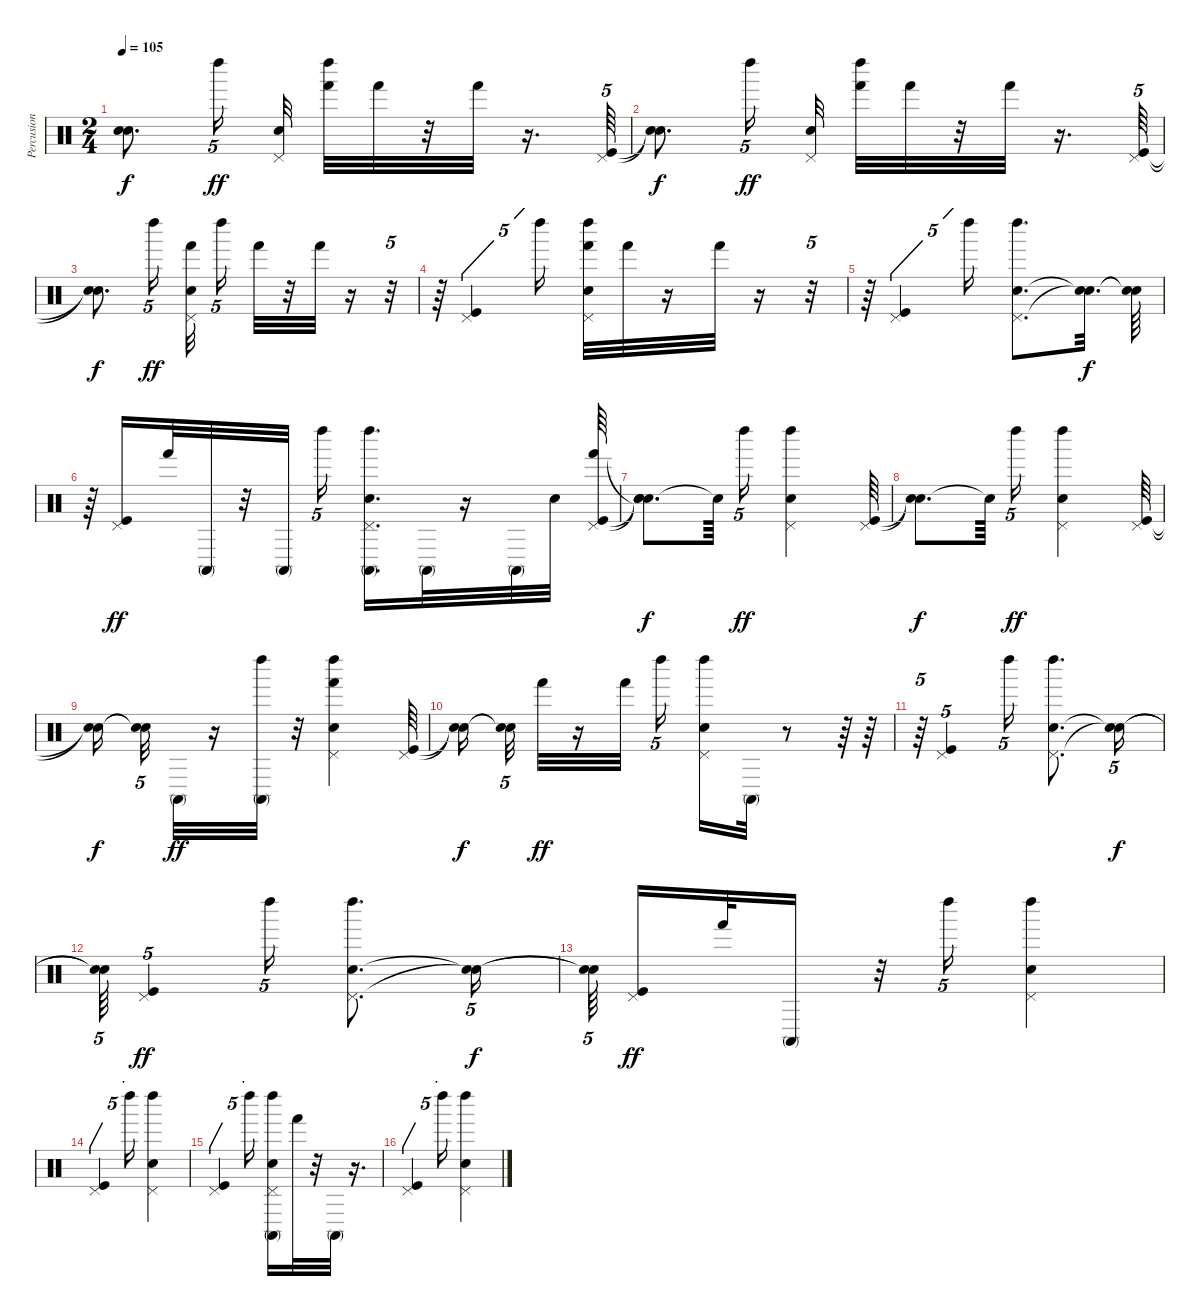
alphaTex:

\track ("Percusion" "Percusion") {instrument percussion}
\staff {score}
\articulation defaults
\ts (2 4)
\tempo 105
\clef neutral
\ks c
("Snare (hit)"{t} "Snare (hit)"{t}).8{d dy f} "Left Maraca (hit)".16{tu (5 4) dy ff} ("Electric Snare (hit)" "Pedal Hi-Hat (hit)").32 ("Left Maraca (hit)" "Hand (hit)").32 "Hand (hit)".32 r.32 "Hand (hit)".32 r.16{d} ("Kick (hit)" "Pedal Hi-Hat (hit)").64{tu (5 4)} |
("Snare (hit)"{t} "Snare (hit)"{t}).8{d dy f} "Left Maraca (hit)".16{tu (5 4) dy ff} ("Pedal Hi-Hat (hit)" "Electric Snare (hit)").32 ("Left Maraca (hit)" "Hand (hit)").32 "Hand (hit)".32 r.32 "Hand (hit)".32 r.16{d} ("Pedal Hi-Hat (hit)" "Kick (hit)").64{tu (5 4)} |
("Snare (hit)"{t} "Snare (hit)"{t}).8{d dy f} "Left Maraca (hit)".16{tu (5 4) dy ff} ("Electric Snare (hit)" "Hand (hit)" "Pedal Hi-Hat (hit)").32 "Left Maraca (hit)".16{tu (5 4)} "Hand (hit)".32 r.32 "Hand (hit)".32 r.16 r.32{tu (5 4)} |
r.64 ("Pedal Hi-Hat (hit)" "Kick (hit)").4{tu (5 4)} "Left Maraca (hit)".16{tu (5 4)} ("Pedal Hi-Hat (hit)" "Electric Snare (hit)" "Hand (hit)" "Left Maraca (hit)").32 "Hand (hit)".32 r.16 "Hand (hit)".32 r.16 r.32{tu (5 4)} |
r.64 ("Kick (hit)" "Pedal Hi-Hat (hit)").4{tu (5 4)} "Left Maraca (hit)".16{tu (5 4)} ("Electric Snare (hit)" "Pedal Hi-Hat (hit)" "Left Maraca (hit)").8{d} ("Snare (hit)"{t} "Snare (hit)"{t}).32{d dy f} ("Snare (hit)"{t} "Snare (hit)"{t}).64 |
r.64 ("Pedal Hi-Hat (hit)" "Kick (hit)").16{dy ff} "Hand (hit)".32 "Conga high (mute)".32 r.32 "Conga high (mute)".32 "Left Maraca (hit)".16{tu (5 4)} ("Pedal Hi-Hat (hit)" "Electric Snare (hit)" "Conga high (mute)" "Left Maraca (hit)").16{d} "Conga high (mute)".32 r.16 "Conga high (mute)".32 "Electric Snare (hit)".32 ("Hand (hit)" "Kick (hit)" "Pedal Hi-Hat (hit)").64 |
("Snare (hit)"{t} "Snare (hit)"{t} "Snare (hit)"{t}).8{d dy f} "Snare (hit)"{t}.64{beam splitsecondary} "Left Maraca (hit)".16{tu (5 4) dy ff} ("Electric Snare (hit)" "Pedal Hi-Hat (hit)" "Left Maraca (hit)").4 ("Pedal Hi-Hat (hit)" "Kick (hit)").64 |
("Snare (hit)"{t} "Snare (hit)"{t}).8{d dy f} "Snare (hit)"{t}.64{beam splitsecondary} "Left Maraca (hit)".16{tu (5 4) dy ff} ("Electric Snare (hit)" "Pedal Hi-Hat (hit)" "Left Maraca (hit)").4 ("Kick (hit)" "Pedal Hi-Hat (hit)").64 |
("Snare (hit)"{t} "Snare (hit)"{t}).16{dy f beam splitsecondary} ("Snare (hit)"{t} "Snare (hit)"{t}).32{tu (5 4)} "Conga high (mute)".32{dy ff} r.16 ("Left Maraca (hit)" "Conga high (mute)").32 r.32 ("Hand (hit)" "Pedal Hi-Hat (hit)" "Electric Snare (hit)" "Left Maraca (hit)").4 ("Pedal Hi-Hat (hit)" "Kick (hit)").64 |
("Snare (hit)"{t} "Snare (hit)"{t}).16{dy f beam splitsecondary} ("Snare (hit)"{t} "Snare (hit)"{t}).32{tu (5 4)} "Hand (hit)".32{dy ff} r.16 "Hand (hit)".32 "Left Maraca (hit)".16{tu (5 4)} ("Electric Snare (hit)" "Pedal Hi-Hat (hit)" "Left Maraca (hit)").16 "Conga high (mute)".32 r.8 r.64 r.64 |
r.64{tu (5 4)} ("Kick (hit)" "Pedal Hi-Hat (hit)").4{tu (5 4)} "Left Maraca (hit)".16{tu (5 4)} ("Pedal Hi-Hat (hit)" "Electric Snare (hit)" "Left Maraca (hit)").8{d} ("Snare (hit)"{t} "Snare (hit)"{t}).16{tu (5 4) dy f} |
("Snare (hit)"{t} "Snare (hit)"{t}).64{tu (5 4)} ("Pedal Hi-Hat (hit)" "Kick (hit)").4{tu (5 4) dy ff} "Left Maraca (hit)".16{tu (5 4)} ("Electric Snare (hit)" "Pedal Hi-Hat (hit)" "Left Maraca (hit)").8{d} ("Snare (hit)"{t} "Snare (hit)"{t}).16{tu (5 4) dy f} |
("Snare (hit)"{t} "Snare (hit)"{t}).64{tu (5 4) beam splitsecondary} ("Kick (hit)" "Pedal Hi-Hat (hit)").16{dy ff} "Hand (hit)".32 "Conga high (mute)".16 r.32 "Left Maraca (hit)".16{tu (5 4)} ("Pedal Hi-Hat (hit)" "Electric Snare (hit)" "Left Maraca (hit)").4 |
("Kick (hit)" "Pedal Hi-Hat (hit)").4{tu (5 4)} "Left Maraca (hit)".16{tu (5 4)} ("Electric Snare (hit)" "Pedal Hi-Hat (hit)" "Left Maraca (hit)").4 |
("Pedal Hi-Hat (hit)" "Kick (hit)").4{tu (5 4)} "Left Maraca (hit)".16{tu (5 4)} ("Pedal Hi-Hat (hit)" "Electric Snare (hit)" "Left Maraca (hit)" "Conga high (mute)").16 "Hand (hit)".32 r.32 "Conga high (mute)".32 r.16{d} |
("Kick (hit)" "Pedal Hi-Hat (hit)").4{tu (5 4)} "Left Maraca (hit)".16{tu (5 4)} ("Electric Snare (hit)" "Pedal Hi-Hat (hit)" "Left Maraca (hit)").4
